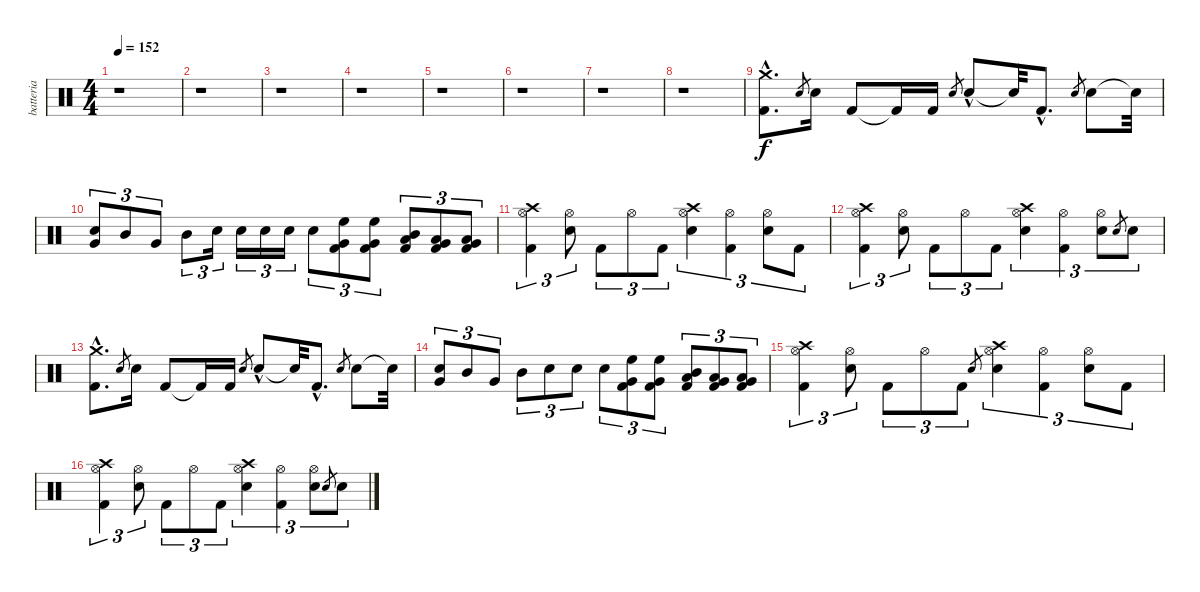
\track ("batteria" "batteria") {instrument percussion}
\staff {score}
\articulation defaults
\ts (4 4)
\tempo 152
\clef neutral
\ks c
r.1{dy f} |
r.1 |
r.1 |
r.1 |
r.1 |
r.1 |
r.1 |
r.1 |
("Crash medium (hit)"{hac} "Kick (hit) 2"{hac}).8{d} "Electric Snare (hit)".8{gr} "Electric Snare (hit)".16 "Kick (hit) 2".8 "Kick (hit) 2"{t}.16 "Kick (hit) 2".16 "Electric Snare (hit)".8{gr} "Electric Snare (hit)"{hac}.8 "Electric Snare (hit)"{t}.32 "Kick (hit) 2"{hac}.8{d} "Electric Snare (hit)".8{gr} "Electric Snare (hit)".8 "Electric Snare (hit)"{t}.32 |
("Very Low Tom (hit)" "Electric Snare (hit)").8{tu (3 2)} "Mid Tom (hit)".8{tu (3 2)} "Very Low Tom (hit)".8{tu (3 2)} "Mid Tom (hit)".8{tu (3 2)} "Electric Snare (hit)".16{tu (3 2)} "Electric Snare (hit)".16{tu (3 2)} "Electric Snare (hit)".16{tu (3 2)} "Electric Snare (hit)".16{tu (3 2)} "Electric Snare (hit)".8{tu (3 2)} ("Very Low Tom (hit)" "High Floor Tom (hit)" "Kick (hit) 2").8{tu (3 2)} ("Very Low Tom (hit)" "High Floor Tom (hit)" "Kick (hit) 2").8{tu (3 2)} ("Low Tom (hit)" "Mid Tom (hit)" "Kick (hit) 2").8{tu (3 2)} ("Low Tom (hit)" "Very Low Tom (hit)" "Kick (hit) 2").8{tu (3 2)} ("Low Floor Tom (hit)" "Very Low Tom (hit)" "Kick (hit) 2").8{tu (3 2)} |
("Hi-Hat (open)" "Crash high (hit)" "Kick (hit) 2").4{tu (3 2)} ("Hi-Hat (open)" "Electric Snare (hit)").8{tu (3 2)} "Kick (hit) 2".8{tu (3 2)} "Hi-Hat (open)".8{tu (3 2)} "Kick (hit) 2".8{tu (3 2)} ("Hi-Hat (open)" "Crash high (hit)" "Electric Snare (hit)").4{tu (3 2)} ("Hi-Hat (open)" "Kick (hit) 2").4{tu (3 2)} ("Hi-Hat (open)" "Electric Snare (hit)").8{tu (3 2)} "Kick (hit) 2".8{tu (3 2)} |
("Hi-Hat (open)" "Crash high (hit)" "Kick (hit) 2").4{tu (3 2)} ("Hi-Hat (open)" "Electric Snare (hit)").8{tu (3 2)} "Kick (hit) 2".8{tu (3 2)} "Hi-Hat (open)".8{tu (3 2)} "Kick (hit) 2".8{tu (3 2)} ("Hi-Hat (open)" "Crash high (hit)" "Electric Snare (hit)").4{tu (3 2)} ("Hi-Hat (open)" "Kick (hit) 2").4{tu (3 2)} ("Hi-Hat (open)" "Electric Snare (hit)").8{tu (3 2)} "Electric Snare (hit)".8{gr} "Electric Snare (hit)".8{tu (3 2)} |
("Crash medium (hit)"{hac} "Kick (hit) 2"{hac}).8{d} "Electric Snare (hit)".8{gr} "Electric Snare (hit)".16 "Kick (hit) 2".8 "Kick (hit) 2"{t}.16 "Kick (hit) 2".16 "Electric Snare (hit)".8{gr} "Electric Snare (hit)"{hac}.8 "Electric Snare (hit)"{t}.32 "Kick (hit) 2"{hac}.8{d} "Electric Snare (hit)".8{gr} "Electric Snare (hit)".8 "Electric Snare (hit)"{t}.32 |
("Very Low Tom (hit)" "Electric Snare (hit)").8{tu (3 2)} "Mid Tom (hit)".8{tu (3 2)} "Very Low Tom (hit)".8{tu (3 2)} "Mid Tom (hit)".8{tu (3 2)} "Electric Snare (hit)".8{tu (3 2)} "Electric Snare (hit)".8{tu (3 2)} "Electric Snare (hit)".8{tu (3 2)} ("Very Low Tom (hit)" "High Floor Tom (hit)" "Kick (hit) 2").8{tu (3 2)} ("Very Low Tom (hit)" "High Floor Tom (hit)" "Kick (hit) 2").8{tu (3 2)} ("Low Tom (hit)" "Mid Tom (hit)" "Kick (hit) 2").8{tu (3 2)} ("Low Tom (hit)" "Very Low Tom (hit)" "Kick (hit) 2").8{tu (3 2)} ("Low Floor Tom (hit)" "Very Low Tom (hit)" "Kick (hit) 2").8{tu (3 2)} |
("Hi-Hat (open)" "Crash high (hit)" "Kick (hit) 2").4{tu (3 2)} ("Hi-Hat (open)" "Electric Snare (hit)").8{tu (3 2)} "Kick (hit) 2".8{tu (3 2)} "Hi-Hat (open)".8{tu (3 2)} "Kick (hit) 2".8{tu (3 2)} "Electric Snare (hit)".8{gr} ("Hi-Hat (open)" "Crash high (hit)" "Electric Snare (hit)").4{tu (3 2)} ("Hi-Hat (open)" "Kick (hit) 2").4{tu (3 2)} ("Hi-Hat (open)" "Electric Snare (hit)").8{tu (3 2)} "Kick (hit) 2".8{tu (3 2)} |
("Hi-Hat (open)" "Crash high (hit)" "Kick (hit) 2").4{tu (3 2)} ("Hi-Hat (open)" "Electric Snare (hit)").8{tu (3 2)} "Kick (hit) 2".8{tu (3 2)} "Hi-Hat (open)".8{tu (3 2)} "Kick (hit) 2".8{tu (3 2)} ("Hi-Hat (open)" "Crash high (hit)" "Electric Snare (hit)").4{tu (3 2)} ("Hi-Hat (open)" "Kick (hit) 2").4{tu (3 2)} ("Hi-Hat (open)" "Electric Snare (hit)").8{tu (3 2)} "Electric Snare (hit)".8{gr} "Electric Snare (hit)".8{tu (3 2)}
